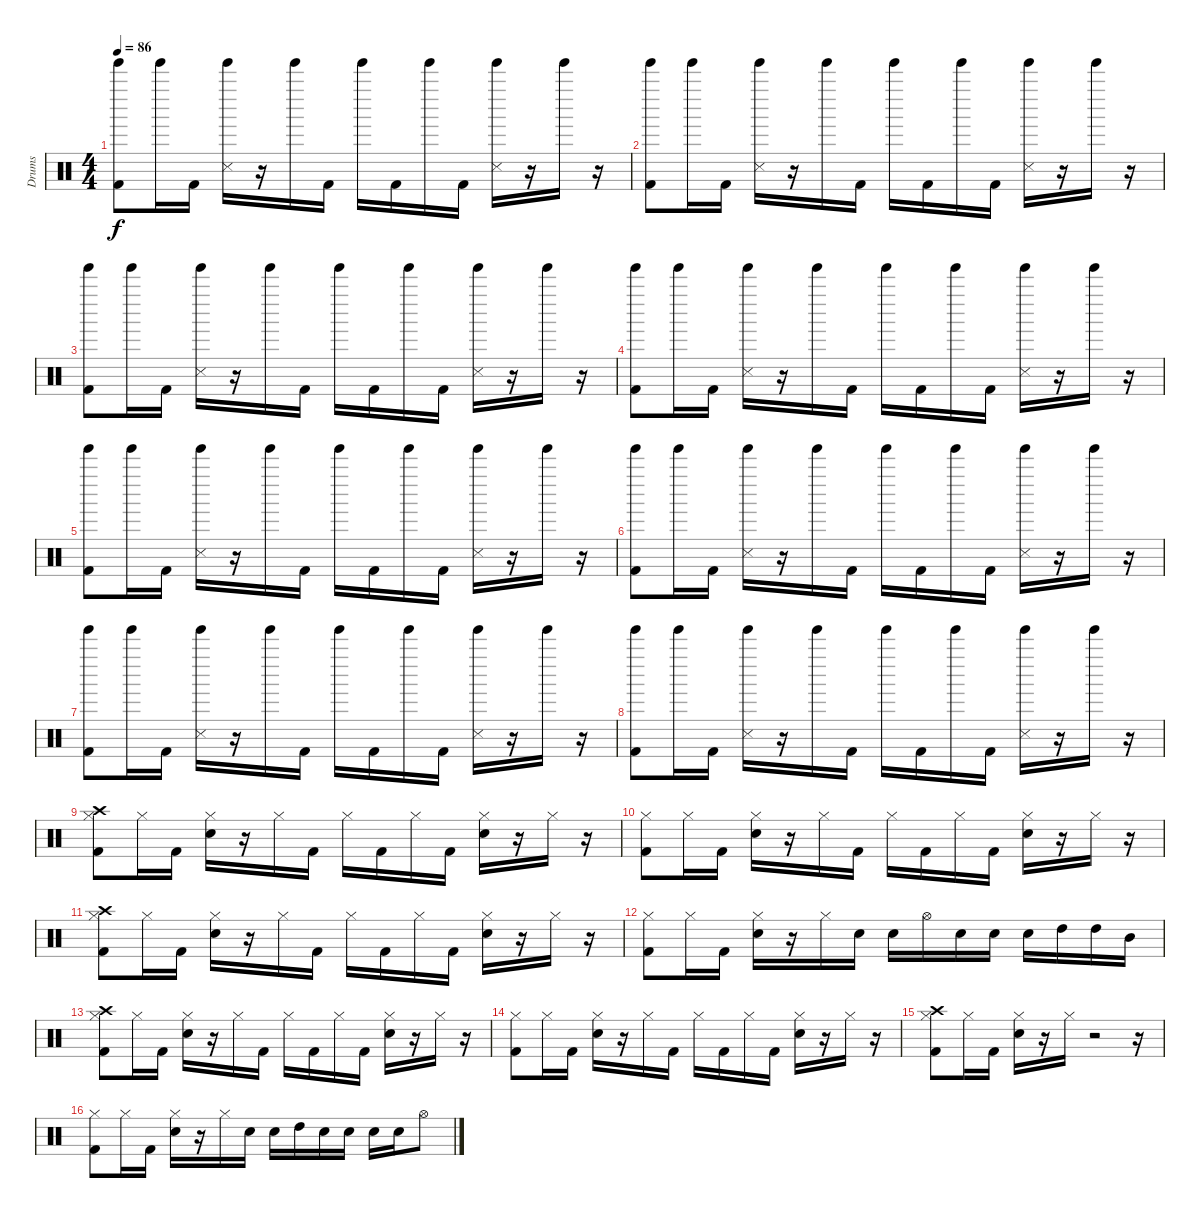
\track ("Drums" "Drums") {instrument percussion}
\staff {score}
\articulation defaults
\ts (4 4)
\tempo 86
\clef neutral
\ks c
("Kick (hit) 2" "Tinkle Bell (hit)").8{dy f} "Tinkle Bell (hit)".16 "Kick (hit) 2".16 ("Snare (side stick) 3" "Tinkle Bell (hit)").16 r.16 "Tinkle Bell (hit)".16 "Kick (hit) 2".16 "Tinkle Bell (hit)".16 "Kick (hit) 2".16 "Tinkle Bell (hit)".16 "Kick (hit) 2".16 ("Snare (side stick) 3" "Tinkle Bell (hit)").16 r.16 "Tinkle Bell (hit)".16 r.16 |
("Kick (hit) 2" "Tinkle Bell (hit)").8 "Tinkle Bell (hit)".16 "Kick (hit) 2".16 ("Snare (side stick) 3" "Tinkle Bell (hit)").16 r.16 "Tinkle Bell (hit)".16 "Kick (hit) 2".16 "Tinkle Bell (hit)".16 "Kick (hit) 2".16 "Tinkle Bell (hit)".16 "Kick (hit) 2".16 ("Snare (side stick) 3" "Tinkle Bell (hit)").16 r.16 "Tinkle Bell (hit)".16 r.16 |
("Kick (hit) 2" "Tinkle Bell (hit)").8 "Tinkle Bell (hit)".16 "Kick (hit) 2".16 ("Snare (side stick) 3" "Tinkle Bell (hit)").16 r.16 "Tinkle Bell (hit)".16 "Kick (hit) 2".16 "Tinkle Bell (hit)".16 "Kick (hit) 2".16 "Tinkle Bell (hit)".16 "Kick (hit) 2".16 ("Snare (side stick) 3" "Tinkle Bell (hit)").16 r.16 "Tinkle Bell (hit)".16 r.16 |
("Kick (hit) 2" "Tinkle Bell (hit)").8 "Tinkle Bell (hit)".16 "Kick (hit) 2".16 ("Snare (side stick) 3" "Tinkle Bell (hit)").16 r.16 "Tinkle Bell (hit)".16 "Kick (hit) 2".16 "Tinkle Bell (hit)".16 "Kick (hit) 2".16 "Tinkle Bell (hit)".16 "Kick (hit) 2".16 ("Snare (side stick) 3" "Tinkle Bell (hit)").16 r.16 "Tinkle Bell (hit)".16 r.16 |
("Kick (hit) 2" "Tinkle Bell (hit)").8 "Tinkle Bell (hit)".16 "Kick (hit) 2".16 ("Snare (side stick) 3" "Tinkle Bell (hit)").16 r.16 "Tinkle Bell (hit)".16 "Kick (hit) 2".16 "Tinkle Bell (hit)".16 "Kick (hit) 2".16 "Tinkle Bell (hit)".16 "Kick (hit) 2".16 ("Snare (side stick) 3" "Tinkle Bell (hit)").16 r.16 "Tinkle Bell (hit)".16 r.16 |
("Kick (hit) 2" "Tinkle Bell (hit)").8 "Tinkle Bell (hit)".16 "Kick (hit) 2".16 ("Snare (side stick) 3" "Tinkle Bell (hit)").16 r.16 "Tinkle Bell (hit)".16 "Kick (hit) 2".16 "Tinkle Bell (hit)".16 "Kick (hit) 2".16 "Tinkle Bell (hit)".16 "Kick (hit) 2".16 ("Snare (side stick) 3" "Tinkle Bell (hit)").16 r.16 "Tinkle Bell (hit)".16 r.16 |
("Kick (hit) 2" "Tinkle Bell (hit)").8 "Tinkle Bell (hit)".16 "Kick (hit) 2".16 ("Snare (side stick) 3" "Tinkle Bell (hit)").16 r.16 "Tinkle Bell (hit)".16 "Kick (hit) 2".16 "Tinkle Bell (hit)".16 "Kick (hit) 2".16 "Tinkle Bell (hit)".16 "Kick (hit) 2".16 ("Snare (side stick) 3" "Tinkle Bell (hit)").16 r.16 "Tinkle Bell (hit)".16 r.16 |
("Kick (hit) 2" "Tinkle Bell (hit)").8 "Tinkle Bell (hit)".16 "Kick (hit) 2".16 ("Snare (side stick) 3" "Tinkle Bell (hit)").16 r.16 "Tinkle Bell (hit)".16 "Kick (hit) 2".16 "Tinkle Bell (hit)".16 "Kick (hit) 2".16 "Tinkle Bell (hit)".16 "Kick (hit) 2".16 ("Snare (side stick) 3" "Tinkle Bell (hit)").16 r.16 "Tinkle Bell (hit)".16 r.16 |
("Kick (hit) 2" "Hi-Hat (closed)" "Crash high (hit)").8 "Hi-Hat (closed)".16 "Kick (hit) 2".16 ("Snare (hit) 2" "Hi-Hat (closed)").16 r.16 "Hi-Hat (closed)".16 "Kick (hit) 2".16 "Hi-Hat (closed)".16 "Kick (hit) 2".16 "Hi-Hat (closed)".16 "Kick (hit) 2".16 ("Snare (hit) 2" "Hi-Hat (closed)").16 r.16 "Hi-Hat (closed)".16 r.16 |
("Kick (hit) 2" "Hi-Hat (closed)").8 "Hi-Hat (closed)".16 "Kick (hit) 2".16 ("Snare (hit) 2" "Hi-Hat (closed)").16 r.16 "Hi-Hat (closed)".16 "Kick (hit) 2".16 "Hi-Hat (closed)".16 "Kick (hit) 2".16 "Hi-Hat (closed)".16 "Kick (hit) 2".16 ("Snare (hit) 2" "Hi-Hat (closed)").16 r.16 "Hi-Hat (closed)".16 r.16 |
("Kick (hit) 2" "Hi-Hat (closed)" "Crash high (hit)").8 "Hi-Hat (closed)".16 "Kick (hit) 2".16 ("Snare (hit) 2" "Hi-Hat (closed)").16 r.16 "Hi-Hat (closed)".16 "Kick (hit) 2".16 "Hi-Hat (closed)".16 "Kick (hit) 2".16 "Hi-Hat (closed)".16 "Kick (hit) 2".16 ("Snare (hit) 2" "Hi-Hat (closed)").16 r.16 "Hi-Hat (closed)".16 r.16 |
("Kick (hit) 2" "Hi-Hat (closed)").8 "Hi-Hat (closed)".16 "Kick (hit) 2".16 ("Snare (hit) 2" "Hi-Hat (closed)").16 r.16 "Hi-Hat (closed)".16 "Snare (hit) 2".16 "Snare (hit) 2".16 "Hi-Hat (open)".16 "Snare (hit) 2".16 "Snare (hit) 2".16 "Snare (hit) 2".16 "High Tom (hit)".16 "High Tom (hit)".16 "Mid Tom (hit)".16 |
("Kick (hit) 2" "Hi-Hat (closed)" "Crash high (hit)").8 "Hi-Hat (closed)".16 "Kick (hit) 2".16 ("Snare (hit) 2" "Hi-Hat (closed)").16 r.16 "Hi-Hat (closed)".16 "Kick (hit) 2".16 "Hi-Hat (closed)".16 "Kick (hit) 2".16 "Hi-Hat (closed)".16 "Kick (hit) 2".16 ("Snare (hit) 2" "Hi-Hat (closed)").16 r.16 "Hi-Hat (closed)".16 r.16 |
("Kick (hit) 2" "Hi-Hat (closed)").8 "Hi-Hat (closed)".16 "Kick (hit) 2".16 ("Snare (hit) 2" "Hi-Hat (closed)").16 r.16 "Hi-Hat (closed)".16 "Kick (hit) 2".16 "Hi-Hat (closed)".16 "Kick (hit) 2".16 "Hi-Hat (closed)".16 "Kick (hit) 2".16 ("Snare (hit) 2" "Hi-Hat (closed)").16 r.16 "Hi-Hat (closed)".16 r.16 |
("Kick (hit) 2" "Hi-Hat (closed)" "Crash high (hit)").8 "Hi-Hat (closed)".16 "Kick (hit) 2".16 ("Snare (hit) 2" "Hi-Hat (closed)").16 r.16 "Hi-Hat (closed)".16 r.2 r.16 |
("Kick (hit) 2" "Hi-Hat (closed)").8 "Hi-Hat (closed)".16 "Kick (hit) 2".16 ("Snare (hit) 2" "Hi-Hat (closed)").16 r.16 "Hi-Hat (closed)".16 "Snare (hit) 2".16 "Snare (hit) 2".16 "High Tom (hit)".16 "Snare (hit) 2".16 "Snare (hit) 2".16 "Snare (hit) 2".16 "Snare (hit) 2".16 "Hi-Hat (open)".8
